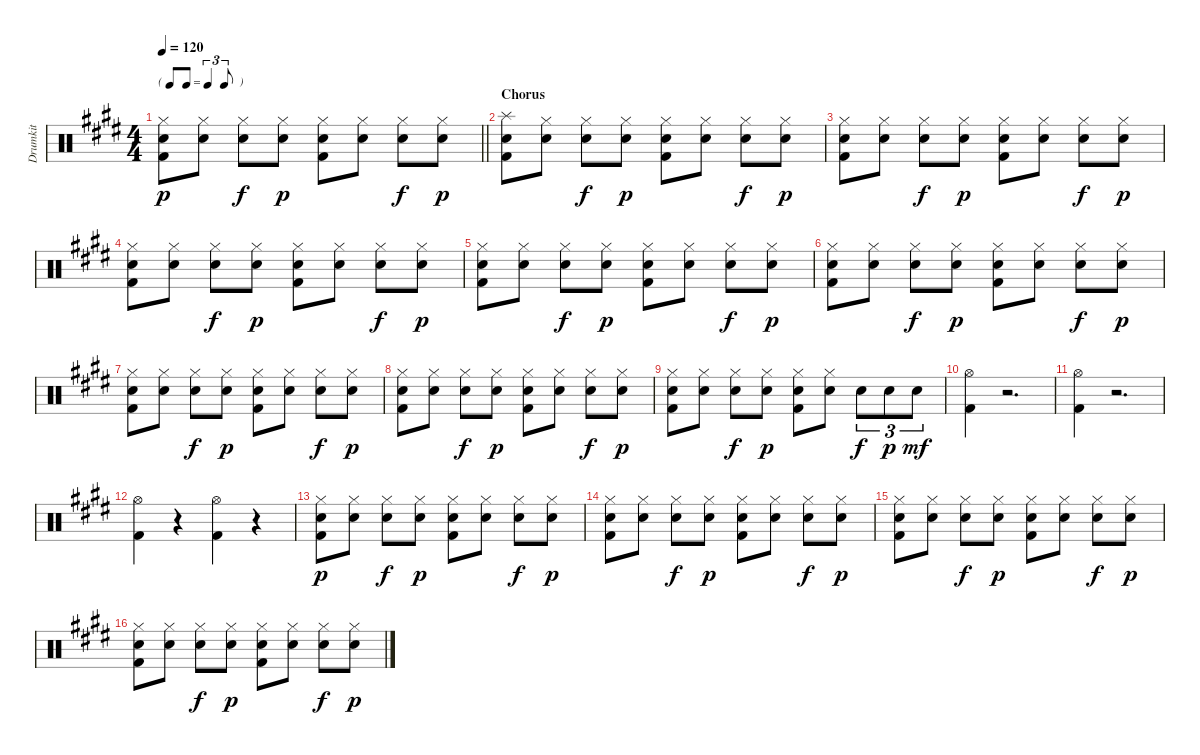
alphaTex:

\track ("Drumkit" "Drumkit") {instrument percussion}
\staff {score}
\articulation defaults
\ts (4 4)
\tf triplet8th
\tempo 120
\clef neutral
\barLineRight lightlight
\ks e
("Hi-Hat (closed)" "Snare (hit) 2" "Kick (hit) 2").8{dy p} ("Hi-Hat (closed)" "Snare (hit) 2").8 ("Hi-Hat (closed)" "Snare (hit) 2").8{dy f} ("Hi-Hat (closed)" "Snare (hit) 2").8{dy p} ("Hi-Hat (closed)" "Snare (hit) 2" "Kick (hit) 2").8 ("Hi-Hat (closed)" "Snare (hit) 2").8 ("Hi-Hat (closed)" "Snare (hit) 2").8{dy f} ("Hi-Hat (closed)" "Snare (hit) 2").8{dy p} |
\section ("" "Chorus")
("Snare (hit) 2" "Kick (hit) 2" "Splash (hit)").8 ("Hi-Hat (closed)" "Snare (hit) 2").8 ("Hi-Hat (closed)" "Snare (hit) 2").8{dy f} ("Hi-Hat (closed)" "Snare (hit) 2").8{dy p} ("Hi-Hat (closed)" "Snare (hit) 2" "Kick (hit) 2").8 ("Hi-Hat (closed)" "Snare (hit) 2").8 ("Hi-Hat (closed)" "Snare (hit) 2").8{dy f} ("Hi-Hat (closed)" "Snare (hit) 2").8{dy p} |
("Hi-Hat (closed)" "Snare (hit) 2" "Kick (hit) 2").8 ("Hi-Hat (closed)" "Snare (hit) 2").8 ("Hi-Hat (closed)" "Snare (hit) 2").8{dy f} ("Hi-Hat (closed)" "Snare (hit) 2").8{dy p} ("Hi-Hat (closed)" "Snare (hit) 2" "Kick (hit) 2").8 ("Hi-Hat (closed)" "Snare (hit) 2").8 ("Hi-Hat (closed)" "Snare (hit) 2").8{dy f} ("Hi-Hat (closed)" "Snare (hit) 2").8{dy p} |
("Hi-Hat (closed)" "Snare (hit) 2" "Kick (hit) 2").8 ("Hi-Hat (closed)" "Snare (hit) 2").8 ("Hi-Hat (closed)" "Snare (hit) 2").8{dy f} ("Hi-Hat (closed)" "Snare (hit) 2").8{dy p} ("Hi-Hat (closed)" "Snare (hit) 2" "Kick (hit) 2").8 ("Hi-Hat (closed)" "Snare (hit) 2").8 ("Hi-Hat (closed)" "Snare (hit) 2").8{dy f} ("Hi-Hat (closed)" "Snare (hit) 2").8{dy p} |
("Hi-Hat (closed)" "Snare (hit) 2" "Kick (hit) 2").8 ("Hi-Hat (closed)" "Snare (hit) 2").8 ("Hi-Hat (closed)" "Snare (hit) 2").8{dy f} ("Hi-Hat (closed)" "Snare (hit) 2").8{dy p} ("Hi-Hat (closed)" "Snare (hit) 2" "Kick (hit) 2").8 ("Hi-Hat (closed)" "Snare (hit) 2").8 ("Hi-Hat (closed)" "Snare (hit) 2").8{dy f} ("Hi-Hat (closed)" "Snare (hit) 2").8{dy p} |
("Hi-Hat (closed)" "Snare (hit) 2" "Kick (hit) 2").8 ("Hi-Hat (closed)" "Snare (hit) 2").8 ("Hi-Hat (closed)" "Snare (hit) 2").8{dy f} ("Hi-Hat (closed)" "Snare (hit) 2").8{dy p} ("Hi-Hat (closed)" "Snare (hit) 2" "Kick (hit) 2").8 ("Hi-Hat (closed)" "Snare (hit) 2").8 ("Hi-Hat (closed)" "Snare (hit) 2").8{dy f} ("Hi-Hat (closed)" "Snare (hit) 2").8{dy p} |
("Hi-Hat (closed)" "Snare (hit) 2" "Kick (hit) 2").8 ("Hi-Hat (closed)" "Snare (hit) 2").8 ("Hi-Hat (closed)" "Snare (hit) 2").8{dy f} ("Hi-Hat (closed)" "Snare (hit) 2").8{dy p} ("Hi-Hat (closed)" "Snare (hit) 2" "Kick (hit) 2").8 ("Hi-Hat (closed)" "Snare (hit) 2").8 ("Hi-Hat (closed)" "Snare (hit) 2").8{dy f} ("Hi-Hat (closed)" "Snare (hit) 2").8{dy p} |
("Hi-Hat (closed)" "Snare (hit) 2" "Kick (hit) 2").8 ("Hi-Hat (closed)" "Snare (hit) 2").8 ("Hi-Hat (closed)" "Snare (hit) 2").8{dy f} ("Hi-Hat (closed)" "Snare (hit) 2").8{dy p} ("Hi-Hat (closed)" "Snare (hit) 2" "Kick (hit) 2").8 ("Hi-Hat (closed)" "Snare (hit) 2").8 ("Hi-Hat (closed)" "Snare (hit) 2").8{dy f} ("Hi-Hat (closed)" "Snare (hit) 2").8{dy p} |
("Hi-Hat (closed)" "Snare (hit) 2" "Kick (hit) 2").8 ("Hi-Hat (closed)" "Snare (hit) 2").8 ("Hi-Hat (closed)" "Snare (hit) 2").8{dy f} ("Hi-Hat (closed)" "Snare (hit) 2").8{dy p} ("Hi-Hat (closed)" "Snare (hit) 2" "Kick (hit) 2").8 ("Hi-Hat (closed)" "Snare (hit) 2").8 "Snare (hit) 2".8{tu (3 2) dy f} "Snare (hit) 2".8{tu (3 2) dy p} "Snare (hit) 2".8{tu (3 2) dy mf} |
("Kick (hit) 2" "Hi-Hat (open)").4 r.2{d} |
("Kick (hit) 2" "Hi-Hat (open)").4 r.2{d} |
("Kick (hit) 2" "Hi-Hat (open)").4 r.4 ("Kick (hit) 2" "Hi-Hat (open)").4 r.4 |
("Hi-Hat (closed)" "Snare (hit) 2" "Kick (hit) 2").8{dy p} ("Hi-Hat (closed)" "Snare (hit) 2").8 ("Hi-Hat (closed)" "Snare (hit) 2").8{dy f} ("Hi-Hat (closed)" "Snare (hit) 2").8{dy p} ("Hi-Hat (closed)" "Snare (hit) 2" "Kick (hit) 2").8 ("Hi-Hat (closed)" "Snare (hit) 2").8 ("Hi-Hat (closed)" "Snare (hit) 2").8{dy f} ("Hi-Hat (closed)" "Snare (hit) 2").8{dy p} |
("Hi-Hat (closed)" "Snare (hit) 2" "Kick (hit) 2").8 ("Hi-Hat (closed)" "Snare (hit) 2").8 ("Hi-Hat (closed)" "Snare (hit) 2").8{dy f} ("Hi-Hat (closed)" "Snare (hit) 2").8{dy p} ("Hi-Hat (closed)" "Snare (hit) 2" "Kick (hit) 2").8 ("Hi-Hat (closed)" "Snare (hit) 2").8 ("Hi-Hat (closed)" "Snare (hit) 2").8{dy f} ("Hi-Hat (closed)" "Snare (hit) 2").8{dy p} |
("Hi-Hat (closed)" "Snare (hit) 2" "Kick (hit) 2").8 ("Hi-Hat (closed)" "Snare (hit) 2").8 ("Hi-Hat (closed)" "Snare (hit) 2").8{dy f} ("Hi-Hat (closed)" "Snare (hit) 2").8{dy p} ("Hi-Hat (closed)" "Snare (hit) 2" "Kick (hit) 2").8 ("Hi-Hat (closed)" "Snare (hit) 2").8 ("Hi-Hat (closed)" "Snare (hit) 2").8{dy f} ("Hi-Hat (closed)" "Snare (hit) 2").8{dy p} |
("Hi-Hat (closed)" "Snare (hit) 2" "Kick (hit) 2").8 ("Hi-Hat (closed)" "Snare (hit) 2").8 ("Hi-Hat (closed)" "Snare (hit) 2").8{dy f} ("Hi-Hat (closed)" "Snare (hit) 2").8{dy p} ("Hi-Hat (closed)" "Snare (hit) 2" "Kick (hit) 2").8 ("Hi-Hat (closed)" "Snare (hit) 2").8 ("Hi-Hat (closed)" "Snare (hit) 2").8{dy f} ("Hi-Hat (closed)" "Snare (hit) 2").8{dy p}
